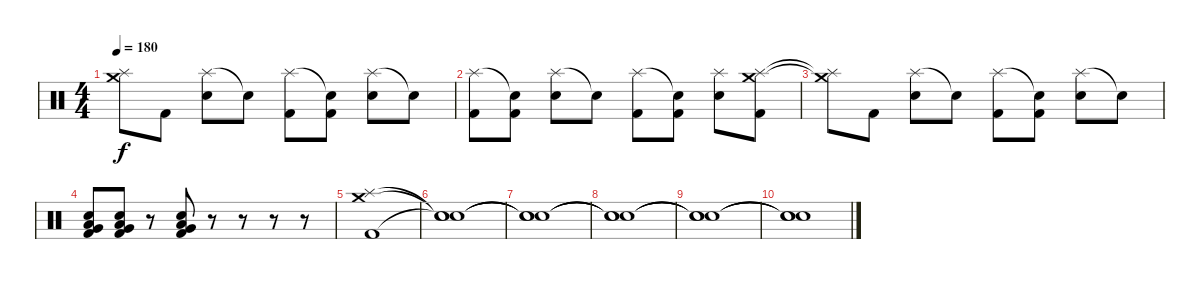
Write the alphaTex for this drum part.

\track (" " " ") {instrument percussion}
\staff {score}
\articulation defaults
\ts (4 4)
\tempo 180
\clef neutral
\ks c
("Crash medium (hit)"{t} "Splash (hit)"{t}).8{dy f} "Kick (hit) 2".8 ("Splash (hit)" "Electric Snare (hit)").8 "Snare (hit)"{t}.8 ("Splash (hit)" "Kick (hit) 2").8 ("Snare (hit)"{t} "Kick (hit) 2").8 ("Splash (hit)" "Electric Snare (hit)").8 "Snare (hit)"{t}.8 |
("Splash (hit)" "Kick (hit) 2").8 ("Snare (hit)"{t} "Kick (hit) 2").8 ("Splash (hit)" "Electric Snare (hit)").8 "Snare (hit)"{t}.8 ("Splash (hit)" "Kick (hit) 2").8 ("Snare (hit)"{t} "Kick (hit) 2").8 ("Splash (hit)" "Electric Snare (hit)").8 ("Crash medium (hit)" "Splash (hit)" "Kick (hit) 2").8 |
("Crash medium (hit)"{t} "Splash (hit)"{t}).8 "Kick (hit) 2".8 ("Splash (hit)" "Electric Snare (hit)").8 "Snare (hit)"{t}.8 ("Splash (hit)" "Kick (hit) 2").8 ("Snare (hit)"{t} "Kick (hit) 2").8 ("Splash (hit)" "Electric Snare (hit)").8 "Snare (hit)"{t}.8 |
("Electric Snare (hit)" "Low Floor Tom (hit)" "Very Low Tom (hit)" "Kick (hit) 2").8 ("Electric Snare (hit)" "Low Floor Tom (hit)" "Very Low Tom (hit)" "Kick (hit) 2").8 r.8 ("Electric Snare (hit)" "Low Floor Tom (hit)" "Very Low Tom (hit)" "Kick (hit) 2").8 r.8 r.8 r.8 r.8 |
("Splash (hit)" "Crash medium (hit)" "Kick (hit) 2").1 |
("Snare (hit)"{t} "Snare (hit)"{t} "Snare (hit)"{t}).1 |
("Snare (hit)"{t} "Snare (hit)"{t} "Snare (hit)"{t}).1 |
("Snare (hit)"{t} "Snare (hit)"{t} "Snare (hit)"{t}).1 |
("Snare (hit)"{t} "Snare (hit)"{t} "Snare (hit)"{t}).1 |
("Snare (hit)"{t} "Snare (hit)"{t} "Snare (hit)"{t}).1
